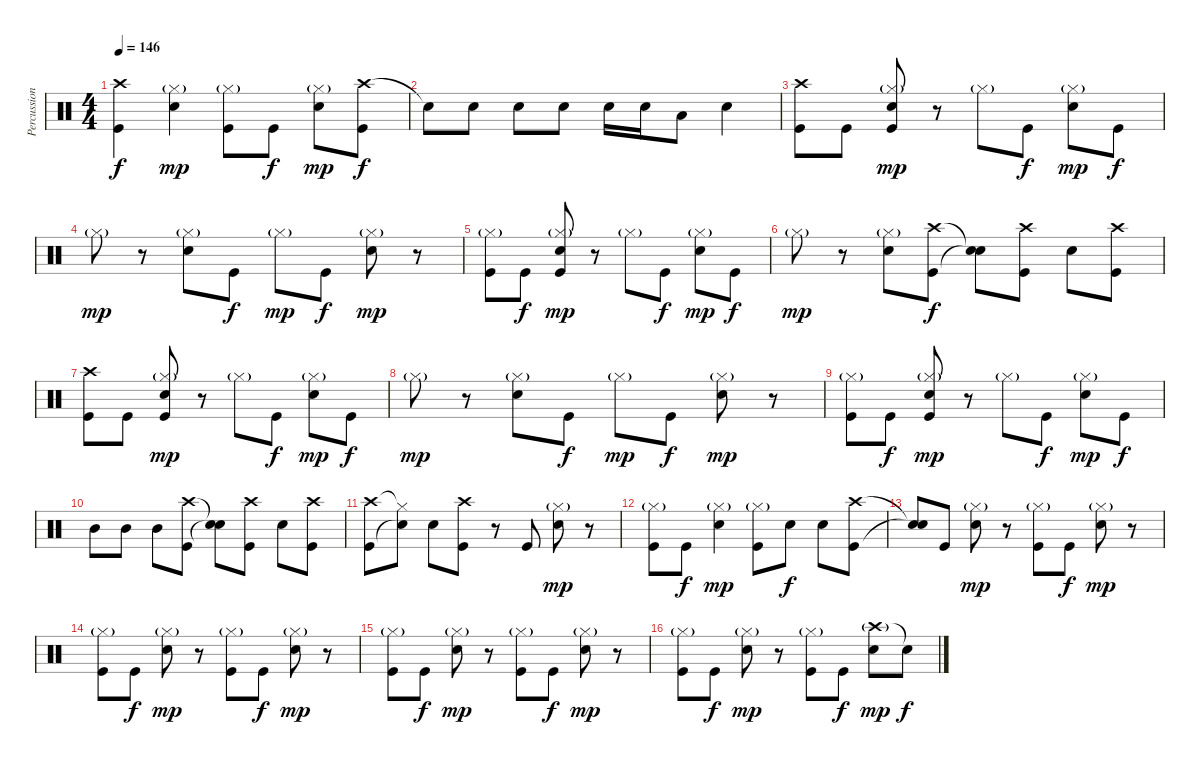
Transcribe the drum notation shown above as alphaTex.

\track ("Percussion" "Percussion") {instrument percussion}
\staff {score}
\articulation defaults
\ts (4 4)
\tempo 146
\clef neutral
\ks c
("Crash high (hit)" "Kick (hit)").4{dy f} ("Hi-Hat (closed)"{g} "Snare (hit) 2").4{dy mp} ("Hi-Hat (closed)"{g} "Kick (hit)").8 "Kick (hit)".8{dy f} ("Hi-Hat (closed)"{g} "Snare (hit) 2").8{dy mp} ("Crash high (hit)" "Kick (hit)").8{dy f} |
"Snare (hit)"{t}.8 "Snare (hit) 2".8 "Snare (hit) 2".8 "Snare (hit) 2".8 "Snare (hit) 2".16 "Snare (hit) 2".16 "Low Tom (hit)".8 "Snare (hit) 2".4 |
("Crash high (hit)" "Kick (hit)").8 "Kick (hit)".8 ("Hi-Hat (closed)"{g} "Snare (hit) 2" "Kick (hit)").8{dy mp} r.8 "Hi-Hat (closed)"{g}.8 "Kick (hit)".8{dy f} ("Hi-Hat (closed)"{g} "Snare (hit) 2").8{dy mp} "Kick (hit)".8{dy f} |
"Hi-Hat (closed)"{g}.8{dy mp} r.8 ("Hi-Hat (closed)"{g} "Snare (hit) 2").8 "Kick (hit)".8{dy f} "Hi-Hat (closed)"{g}.8{dy mp} "Kick (hit)".8{dy f} ("Hi-Hat (closed)"{g} "Snare (hit) 2").8{dy mp} r.8 |
("Hi-Hat (closed)"{g} "Kick (hit)").8 "Kick (hit)".8{dy f} ("Hi-Hat (closed)"{g} "Snare (hit) 2" "Kick (hit)").8{dy mp} r.8 "Hi-Hat (closed)"{g}.8 "Kick (hit)".8{dy f} ("Hi-Hat (closed)"{g} "Snare (hit) 2").8{dy mp} "Kick (hit)".8{dy f} |
"Hi-Hat (closed)"{g}.8{dy mp} r.8 ("Hi-Hat (closed)"{g} "Snare (hit) 2").8 ("Crash high (hit)" "Kick (hit)").8{dy f} ("Snare (hit)"{t} "Snare (hit)"{t}).8 ("Crash high (hit)" "Kick (hit)").8 "Snare (hit) 2".8 ("Crash high (hit)" "Kick (hit)").8 |
("Crash high (hit)" "Kick (hit)").8 "Kick (hit)".8 ("Hi-Hat (closed)"{g} "Snare (hit) 2" "Kick (hit)").8{dy mp} r.8 "Hi-Hat (closed)"{g}.8 "Kick (hit)".8{dy f} ("Hi-Hat (closed)"{g} "Snare (hit) 2").8{dy mp} "Kick (hit)".8{dy f} |
"Hi-Hat (closed)"{g}.8{dy mp} r.8 ("Hi-Hat (closed)"{g} "Snare (hit) 2").8 "Kick (hit)".8{dy f} "Hi-Hat (closed)"{g}.8{dy mp} "Kick (hit)".8{dy f} ("Hi-Hat (closed)"{g} "Snare (hit) 2").8{dy mp} r.8 |
("Hi-Hat (closed)"{g} "Kick (hit)").8 "Kick (hit)".8{dy f} ("Hi-Hat (closed)"{g} "Snare (hit) 2" "Kick (hit)").8{dy mp} r.8 "Hi-Hat (closed)"{g}.8 "Kick (hit)".8{dy f} ("Hi-Hat (closed)"{g} "Snare (hit) 2").8{dy mp} "Kick (hit)".8{dy f} |
"Mid Tom (hit)".8 "Mid Tom (hit)".8 "Mid Tom (hit)".8 ("Crash high (hit)" "Kick (hit)").8 ("Snare (hit)"{t} "Snare (hit)"{t}).8 ("Crash high (hit)" "Kick (hit)").8 "Snare (hit) 2".8 ("Crash high (hit)" "Kick (hit)").8 |
("Crash high (hit)" "Kick (hit)").8 ("Hi-Hat (closed)"{t} "Snare (hit)"{t}).8 "Snare (hit) 2".8 ("Crash high (hit)" "Kick (hit)").8 r.8 "Kick (hit)".8 ("Hi-Hat (closed)"{g} "Snare (hit) 2").8{dy mp} r.8 |
("Hi-Hat (closed)"{g} "Kick (hit)").8 "Kick (hit)".8{dy f} ("Hi-Hat (closed)"{g} "Snare (hit) 2").4{dy mp} ("Hi-Hat (closed)"{g} "Kick (hit)").8 "Snare (hit) 2".8{dy f} "Snare (hit) 2".8 ("Crash high (hit)" "Kick (hit)").8 |
("Snare (hit)"{t} "Snare (hit)"{t}).8 "Kick (hit)".8 ("Hi-Hat (closed)"{g} "Snare (hit) 2").8{dy mp} r.8 ("Hi-Hat (closed)"{g} "Kick (hit)").8 "Kick (hit)".8{dy f} ("Hi-Hat (closed)"{g} "Snare (hit) 2").8{dy mp} r.8 |
("Hi-Hat (closed)"{g} "Kick (hit)").8 "Kick (hit)".8{dy f} ("Hi-Hat (closed)"{g} "Snare (hit) 2").8{dy mp} r.8 ("Hi-Hat (closed)"{g} "Kick (hit)").8 "Kick (hit)".8{dy f} ("Hi-Hat (closed)"{g} "Snare (hit) 2").8{dy mp} r.8 |
("Hi-Hat (closed)"{g} "Kick (hit)").8 "Kick (hit)".8{dy f} ("Hi-Hat (closed)"{g} "Snare (hit) 2").8{dy mp} r.8 ("Hi-Hat (closed)"{g} "Kick (hit)").8 "Kick (hit)".8{dy f} ("Hi-Hat (closed)"{g} "Snare (hit) 2").8{dy mp} r.8 |
("Hi-Hat (closed)"{g} "Kick (hit)").8 "Kick (hit)".8{dy f} ("Hi-Hat (closed)"{g} "Snare (hit) 2").8{dy mp} r.8 ("Hi-Hat (closed)"{g} "Kick (hit)").8 "Kick (hit)".8{dy f} ("Crash high (hit)"{g} "Snare (hit) 2").8{dy mp} "Snare (hit)"{t}.8{dy f}
